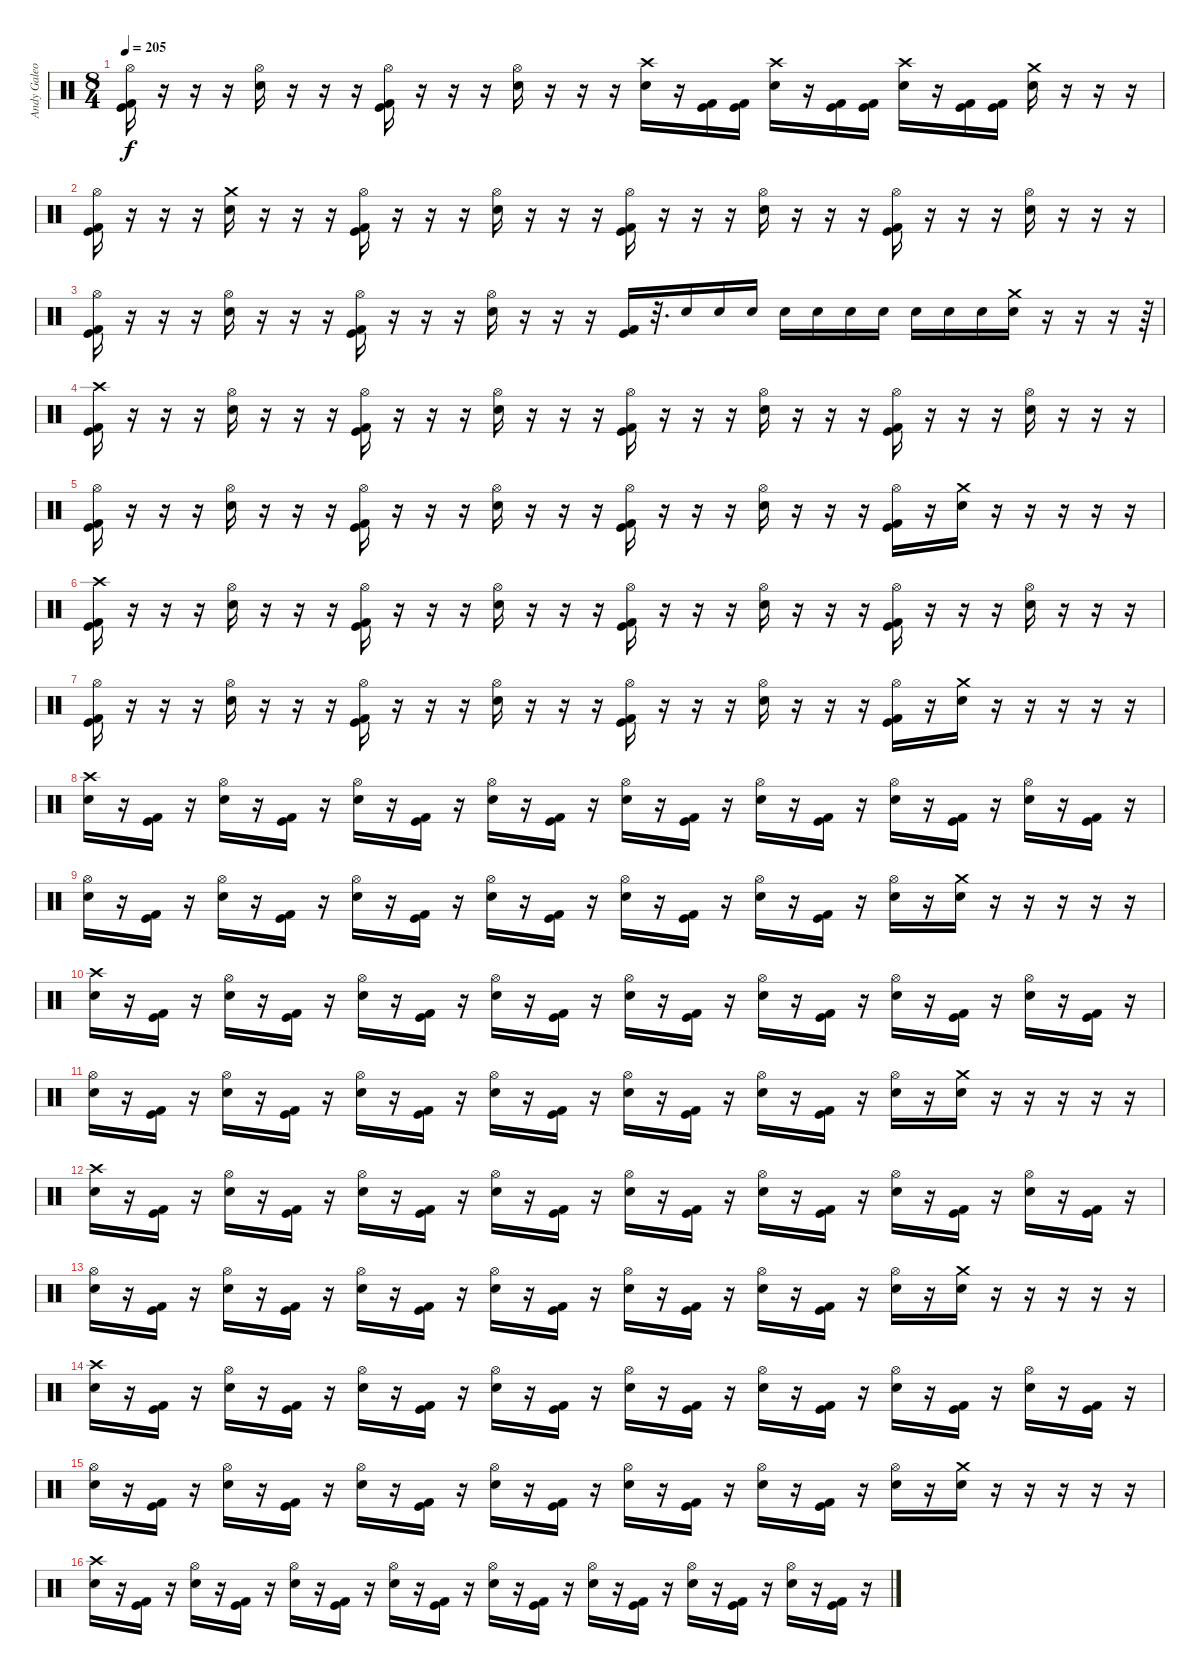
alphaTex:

\track ("Andy Galeon - Drums" "Andy Galeo") {instrument percussion}
\staff {score}
\articulation defaults
\ts (8 4)
\tempo 205
\clef neutral
\ks c
("Hi-Hat (open)" "Kick (hit) 2" "Kick (hit)").16{dy f} r.16 r.16 r.16 ("Hi-Hat (open)" "Electric Snare (hit)").16 r.16 r.16 r.16 ("Hi-Hat (open)" "Kick (hit) 2" "Kick (hit)").16 r.16 r.16 r.16 ("Hi-Hat (open)" "Electric Snare (hit)").16 r.16 r.16 r.16 ("Crash high (hit)" "Electric Snare (hit)").16 r.16 ("Kick (hit) 2" "Kick (hit)").16 ("Kick (hit)" "Kick (hit) 2").16 ("Crash high (hit)" "Electric Snare (hit)").16 r.16 ("Kick (hit) 2" "Kick (hit)").16 ("Kick (hit)" "Kick (hit) 2").16 ("Crash high (hit)" "Electric Snare (hit)").16 r.16 ("Kick (hit)" "Kick (hit) 2").16 ("Kick (hit) 2" "Kick (hit)").16 ("Crash medium (hit)" "Electric Snare (hit)").16 r.16 r.16 r.16 |
("Hi-Hat (open)" "Kick (hit) 2" "Kick (hit)").16 r.16 r.16 r.16 ("Crash medium (hit)" "Electric Snare (hit)").16 r.16 r.16 r.16 ("Hi-Hat (open)" "Kick (hit) 2" "Kick (hit)").16 r.16 r.16 r.16 ("Hi-Hat (open)" "Electric Snare (hit)").16 r.16 r.16 r.16 ("Hi-Hat (open)" "Kick (hit) 2" "Kick (hit)").16 r.16 r.16 r.16 ("Hi-Hat (open)" "Electric Snare (hit)").16 r.16 r.16 r.16 ("Hi-Hat (open)" "Kick (hit) 2" "Kick (hit)").16 r.16 r.16 r.16 ("Hi-Hat (open)" "Electric Snare (hit)").16 r.16 r.16 r.16 |
("Hi-Hat (open)" "Kick (hit) 2" "Kick (hit)").16 r.16 r.16 r.16 ("Hi-Hat (open)" "Electric Snare (hit)").16 r.16 r.16 r.16 ("Hi-Hat (open)" "Kick (hit) 2" "Kick (hit)").16 r.16 r.16 r.16 ("Hi-Hat (open)" "Electric Snare (hit)").16 r.16 r.16 r.16 ("Kick (hit) 2" "Kick (hit)").16 r.32{d} "Electric Snare (hit)".16 "Electric Snare (hit)".16 "Electric Snare (hit)".16 "Electric Snare (hit)".16 "Electric Snare (hit)".16 "Electric Snare (hit)".16 "Electric Snare (hit)".16 "Electric Snare (hit)".16 "Electric Snare (hit)".16 "Electric Snare (hit)".16 ("Crash medium (hit)" "Electric Snare (hit)").16 r.16 r.16 r.16 r.64 |
("Crash high (hit)" "Kick (hit) 2" "Kick (hit)").16 r.16 r.16 r.16 ("Hi-Hat (open)" "Electric Snare (hit)").16 r.16 r.16 r.16 ("Hi-Hat (open)" "Kick (hit) 2" "Kick (hit)").16 r.16 r.16 r.16 ("Hi-Hat (open)" "Electric Snare (hit)").16 r.16 r.16 r.16 ("Hi-Hat (open)" "Kick (hit) 2" "Kick (hit)").16 r.16 r.16 r.16 ("Hi-Hat (open)" "Electric Snare (hit)").16 r.16 r.16 r.16 ("Hi-Hat (open)" "Kick (hit) 2" "Kick (hit)").16 r.16 r.16 r.16 ("Hi-Hat (open)" "Electric Snare (hit)").16 r.16 r.16 r.16 |
("Hi-Hat (open)" "Kick (hit) 2" "Kick (hit)").16 r.16 r.16 r.16 ("Hi-Hat (open)" "Electric Snare (hit)").16 r.16 r.16 r.16 ("Hi-Hat (open)" "Kick (hit) 2" "Kick (hit)").16 r.16 r.16 r.16 ("Hi-Hat (open)" "Electric Snare (hit)").16 r.16 r.16 r.16 ("Hi-Hat (open)" "Kick (hit) 2" "Kick (hit)").16 r.16 r.16 r.16 ("Hi-Hat (open)" "Electric Snare (hit)").16 r.16 r.16 r.16 ("Hi-Hat (open)" "Kick (hit) 2" "Kick (hit)").16 r.16 ("Crash medium (hit)" "Electric Snare (hit)").16 r.16 r.16 r.16 r.16 r.16 |
("Crash high (hit)" "Kick (hit) 2" "Kick (hit)").16 r.16 r.16 r.16 ("Hi-Hat (open)" "Electric Snare (hit)").16 r.16 r.16 r.16 ("Hi-Hat (open)" "Kick (hit) 2" "Kick (hit)").16 r.16 r.16 r.16 ("Hi-Hat (open)" "Electric Snare (hit)").16 r.16 r.16 r.16 ("Hi-Hat (open)" "Kick (hit) 2" "Kick (hit)").16 r.16 r.16 r.16 ("Hi-Hat (open)" "Electric Snare (hit)").16 r.16 r.16 r.16 ("Hi-Hat (open)" "Kick (hit) 2" "Kick (hit)").16 r.16 r.16 r.16 ("Hi-Hat (open)" "Electric Snare (hit)").16 r.16 r.16 r.16 |
("Hi-Hat (open)" "Kick (hit) 2" "Kick (hit)").16 r.16 r.16 r.16 ("Hi-Hat (open)" "Electric Snare (hit)").16 r.16 r.16 r.16 ("Hi-Hat (open)" "Kick (hit) 2" "Kick (hit)").16 r.16 r.16 r.16 ("Hi-Hat (open)" "Electric Snare (hit)").16 r.16 r.16 r.16 ("Hi-Hat (open)" "Kick (hit) 2" "Kick (hit)").16 r.16 r.16 r.16 ("Hi-Hat (open)" "Electric Snare (hit)").16 r.16 r.16 r.16 ("Hi-Hat (open)" "Kick (hit) 2" "Kick (hit)").16 r.16 ("Crash medium (hit)" "Electric Snare (hit)").16 r.16 r.16 r.16 r.16 r.16 |
("Crash high (hit)" "Electric Snare (hit)").16 r.16 ("Kick (hit) 2" "Kick (hit)").16 r.16 ("Hi-Hat (open)" "Electric Snare (hit)").16 r.16 ("Kick (hit) 2" "Kick (hit)").16 r.16 ("Hi-Hat (open)" "Electric Snare (hit)").16 r.16 ("Kick (hit) 2" "Kick (hit)").16 r.16 ("Hi-Hat (open)" "Electric Snare (hit)").16 r.16 ("Kick (hit) 2" "Kick (hit)").16 r.16 ("Hi-Hat (open)" "Electric Snare (hit)").16 r.16 ("Kick (hit) 2" "Kick (hit)").16 r.16 ("Hi-Hat (open)" "Electric Snare (hit)").16 r.16 ("Kick (hit) 2" "Kick (hit)").16 r.16 ("Hi-Hat (open)" "Electric Snare (hit)").16 r.16 ("Kick (hit) 2" "Kick (hit)").16 r.16 ("Hi-Hat (open)" "Electric Snare (hit)").16 r.16 ("Kick (hit) 2" "Kick (hit)").16 r.16 |
("Hi-Hat (open)" "Electric Snare (hit)").16 r.16 ("Kick (hit) 2" "Kick (hit)").16 r.16 ("Hi-Hat (open)" "Electric Snare (hit)").16 r.16 ("Kick (hit) 2" "Kick (hit)").16 r.16 ("Hi-Hat (open)" "Electric Snare (hit)").16 r.16 ("Kick (hit) 2" "Kick (hit)").16 r.16 ("Hi-Hat (open)" "Electric Snare (hit)").16 r.16 ("Kick (hit) 2" "Kick (hit)").16 r.16 ("Hi-Hat (open)" "Electric Snare (hit)").16 r.16 ("Kick (hit) 2" "Kick (hit)").16 r.16 ("Hi-Hat (open)" "Electric Snare (hit)").16 r.16 ("Kick (hit) 2" "Kick (hit)").16 r.16 ("Hi-Hat (open)" "Electric Snare (hit)").16 r.16 ("Crash medium (hit)" "Electric Snare (hit)").16 r.16 r.16 r.16 r.16 r.16 |
("Crash high (hit)" "Electric Snare (hit)").16 r.16 ("Kick (hit) 2" "Kick (hit)").16 r.16 ("Hi-Hat (open)" "Electric Snare (hit)").16 r.16 ("Kick (hit) 2" "Kick (hit)").16 r.16 ("Hi-Hat (open)" "Electric Snare (hit)").16 r.16 ("Kick (hit) 2" "Kick (hit)").16 r.16 ("Hi-Hat (open)" "Electric Snare (hit)").16 r.16 ("Kick (hit) 2" "Kick (hit)").16 r.16 ("Hi-Hat (open)" "Electric Snare (hit)").16 r.16 ("Kick (hit) 2" "Kick (hit)").16 r.16 ("Hi-Hat (open)" "Electric Snare (hit)").16 r.16 ("Kick (hit) 2" "Kick (hit)").16 r.16 ("Hi-Hat (open)" "Electric Snare (hit)").16 r.16 ("Kick (hit) 2" "Kick (hit)").16 r.16 ("Hi-Hat (open)" "Electric Snare (hit)").16 r.16 ("Kick (hit) 2" "Kick (hit)").16 r.16 |
("Hi-Hat (open)" "Electric Snare (hit)").16 r.16 ("Kick (hit) 2" "Kick (hit)").16 r.16 ("Hi-Hat (open)" "Electric Snare (hit)").16 r.16 ("Kick (hit) 2" "Kick (hit)").16 r.16 ("Hi-Hat (open)" "Electric Snare (hit)").16 r.16 ("Kick (hit) 2" "Kick (hit)").16 r.16 ("Hi-Hat (open)" "Electric Snare (hit)").16 r.16 ("Kick (hit) 2" "Kick (hit)").16 r.16 ("Hi-Hat (open)" "Electric Snare (hit)").16 r.16 ("Kick (hit) 2" "Kick (hit)").16 r.16 ("Hi-Hat (open)" "Electric Snare (hit)").16 r.16 ("Kick (hit) 2" "Kick (hit)").16 r.16 ("Hi-Hat (open)" "Electric Snare (hit)").16 r.16 ("Crash medium (hit)" "Electric Snare (hit)").16 r.16 r.16 r.16 r.16 r.16 |
("Crash high (hit)" "Electric Snare (hit)").16 r.16 ("Kick (hit) 2" "Kick (hit)").16 r.16 ("Hi-Hat (open)" "Electric Snare (hit)").16 r.16 ("Kick (hit) 2" "Kick (hit)").16 r.16 ("Hi-Hat (open)" "Electric Snare (hit)").16 r.16 ("Kick (hit) 2" "Kick (hit)").16 r.16 ("Hi-Hat (open)" "Electric Snare (hit)").16 r.16 ("Kick (hit) 2" "Kick (hit)").16 r.16 ("Hi-Hat (open)" "Electric Snare (hit)").16 r.16 ("Kick (hit) 2" "Kick (hit)").16 r.16 ("Hi-Hat (open)" "Electric Snare (hit)").16 r.16 ("Kick (hit) 2" "Kick (hit)").16 r.16 ("Hi-Hat (open)" "Electric Snare (hit)").16 r.16 ("Kick (hit) 2" "Kick (hit)").16 r.16 ("Hi-Hat (open)" "Electric Snare (hit)").16 r.16 ("Kick (hit) 2" "Kick (hit)").16 r.16 |
("Hi-Hat (open)" "Electric Snare (hit)").16 r.16 ("Kick (hit) 2" "Kick (hit)").16 r.16 ("Hi-Hat (open)" "Electric Snare (hit)").16 r.16 ("Kick (hit) 2" "Kick (hit)").16 r.16 ("Hi-Hat (open)" "Electric Snare (hit)").16 r.16 ("Kick (hit) 2" "Kick (hit)").16 r.16 ("Hi-Hat (open)" "Electric Snare (hit)").16 r.16 ("Kick (hit) 2" "Kick (hit)").16 r.16 ("Hi-Hat (open)" "Electric Snare (hit)").16 r.16 ("Kick (hit) 2" "Kick (hit)").16 r.16 ("Hi-Hat (open)" "Electric Snare (hit)").16 r.16 ("Kick (hit) 2" "Kick (hit)").16 r.16 ("Hi-Hat (open)" "Electric Snare (hit)").16 r.16 ("Crash medium (hit)" "Electric Snare (hit)").16 r.16 r.16 r.16 r.16 r.16 |
("Crash high (hit)" "Electric Snare (hit)").16 r.16 ("Kick (hit) 2" "Kick (hit)").16 r.16 ("Hi-Hat (open)" "Electric Snare (hit)").16 r.16 ("Kick (hit) 2" "Kick (hit)").16 r.16 ("Hi-Hat (open)" "Electric Snare (hit)").16 r.16 ("Kick (hit) 2" "Kick (hit)").16 r.16 ("Hi-Hat (open)" "Electric Snare (hit)").16 r.16 ("Kick (hit) 2" "Kick (hit)").16 r.16 ("Hi-Hat (open)" "Electric Snare (hit)").16 r.16 ("Kick (hit) 2" "Kick (hit)").16 r.16 ("Hi-Hat (open)" "Electric Snare (hit)").16 r.16 ("Kick (hit) 2" "Kick (hit)").16 r.16 ("Hi-Hat (open)" "Electric Snare (hit)").16 r.16 ("Kick (hit) 2" "Kick (hit)").16 r.16 ("Hi-Hat (open)" "Electric Snare (hit)").16 r.16 ("Kick (hit) 2" "Kick (hit)").16 r.16 |
("Hi-Hat (open)" "Electric Snare (hit)").16 r.16 ("Kick (hit) 2" "Kick (hit)").16 r.16 ("Hi-Hat (open)" "Electric Snare (hit)").16 r.16 ("Kick (hit) 2" "Kick (hit)").16 r.16 ("Hi-Hat (open)" "Electric Snare (hit)").16 r.16 ("Kick (hit) 2" "Kick (hit)").16 r.16 ("Hi-Hat (open)" "Electric Snare (hit)").16 r.16 ("Kick (hit) 2" "Kick (hit)").16 r.16 ("Hi-Hat (open)" "Electric Snare (hit)").16 r.16 ("Kick (hit) 2" "Kick (hit)").16 r.16 ("Hi-Hat (open)" "Electric Snare (hit)").16 r.16 ("Kick (hit) 2" "Kick (hit)").16 r.16 ("Hi-Hat (open)" "Electric Snare (hit)").16 r.16 ("Crash medium (hit)" "Electric Snare (hit)").16 r.16 r.16 r.16 r.16 r.16 |
("Crash high (hit)" "Electric Snare (hit)").16 r.16 ("Kick (hit) 2" "Kick (hit)").16 r.16 ("Hi-Hat (open)" "Electric Snare (hit)").16 r.16 ("Kick (hit) 2" "Kick (hit)").16 r.16 ("Hi-Hat (open)" "Electric Snare (hit)").16 r.16 ("Kick (hit) 2" "Kick (hit)").16 r.16 ("Hi-Hat (open)" "Electric Snare (hit)").16 r.16 ("Kick (hit) 2" "Kick (hit)").16 r.16 ("Hi-Hat (open)" "Electric Snare (hit)").16 r.16 ("Kick (hit) 2" "Kick (hit)").16 r.16 ("Hi-Hat (open)" "Electric Snare (hit)").16 r.16 ("Kick (hit) 2" "Kick (hit)").16 r.16 ("Hi-Hat (open)" "Electric Snare (hit)").16 r.16 ("Kick (hit) 2" "Kick (hit)").16 r.16 ("Hi-Hat (open)" "Electric Snare (hit)").16 r.16 ("Kick (hit) 2" "Kick (hit)").16 r.16
